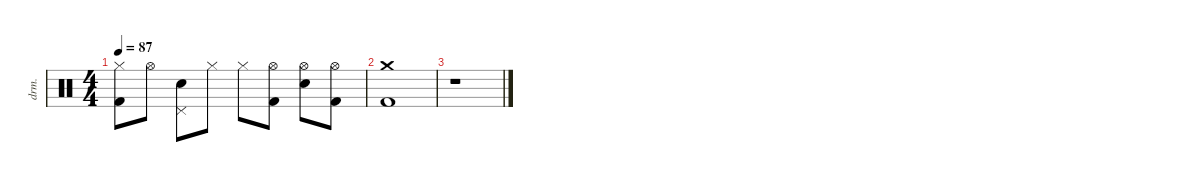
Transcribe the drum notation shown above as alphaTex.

\defaultSystemsLayout 4
\hideDynamics
\bracketExtendMode nobrackets
\otherSystemsTrackNameOrientation horizontal
\track ("Drums" "drm.") {instrument percussion}
\staff {score}
\articulation defaults
\ts (4 4)
\tempo 87
\clef neutral
\ks c
("Hi-Hat (closed)" "Kick (hit) 2").8{dy f} "Hi-Hat (open)".8 ("Pedal Hi-Hat (hit)" "Snare (hit) 2").8 "Hi-Hat (closed)".8 "Hi-Hat (closed)".8 ("Hi-Hat (open)" "Kick (hit) 2").8 ("Hi-Hat (open)" "Snare (hit) 2").8 ("Hi-Hat (open)" "Kick (hit) 2").8 |
("Crash medium (hit)" "Kick (hit) 2").1 |
r.1
